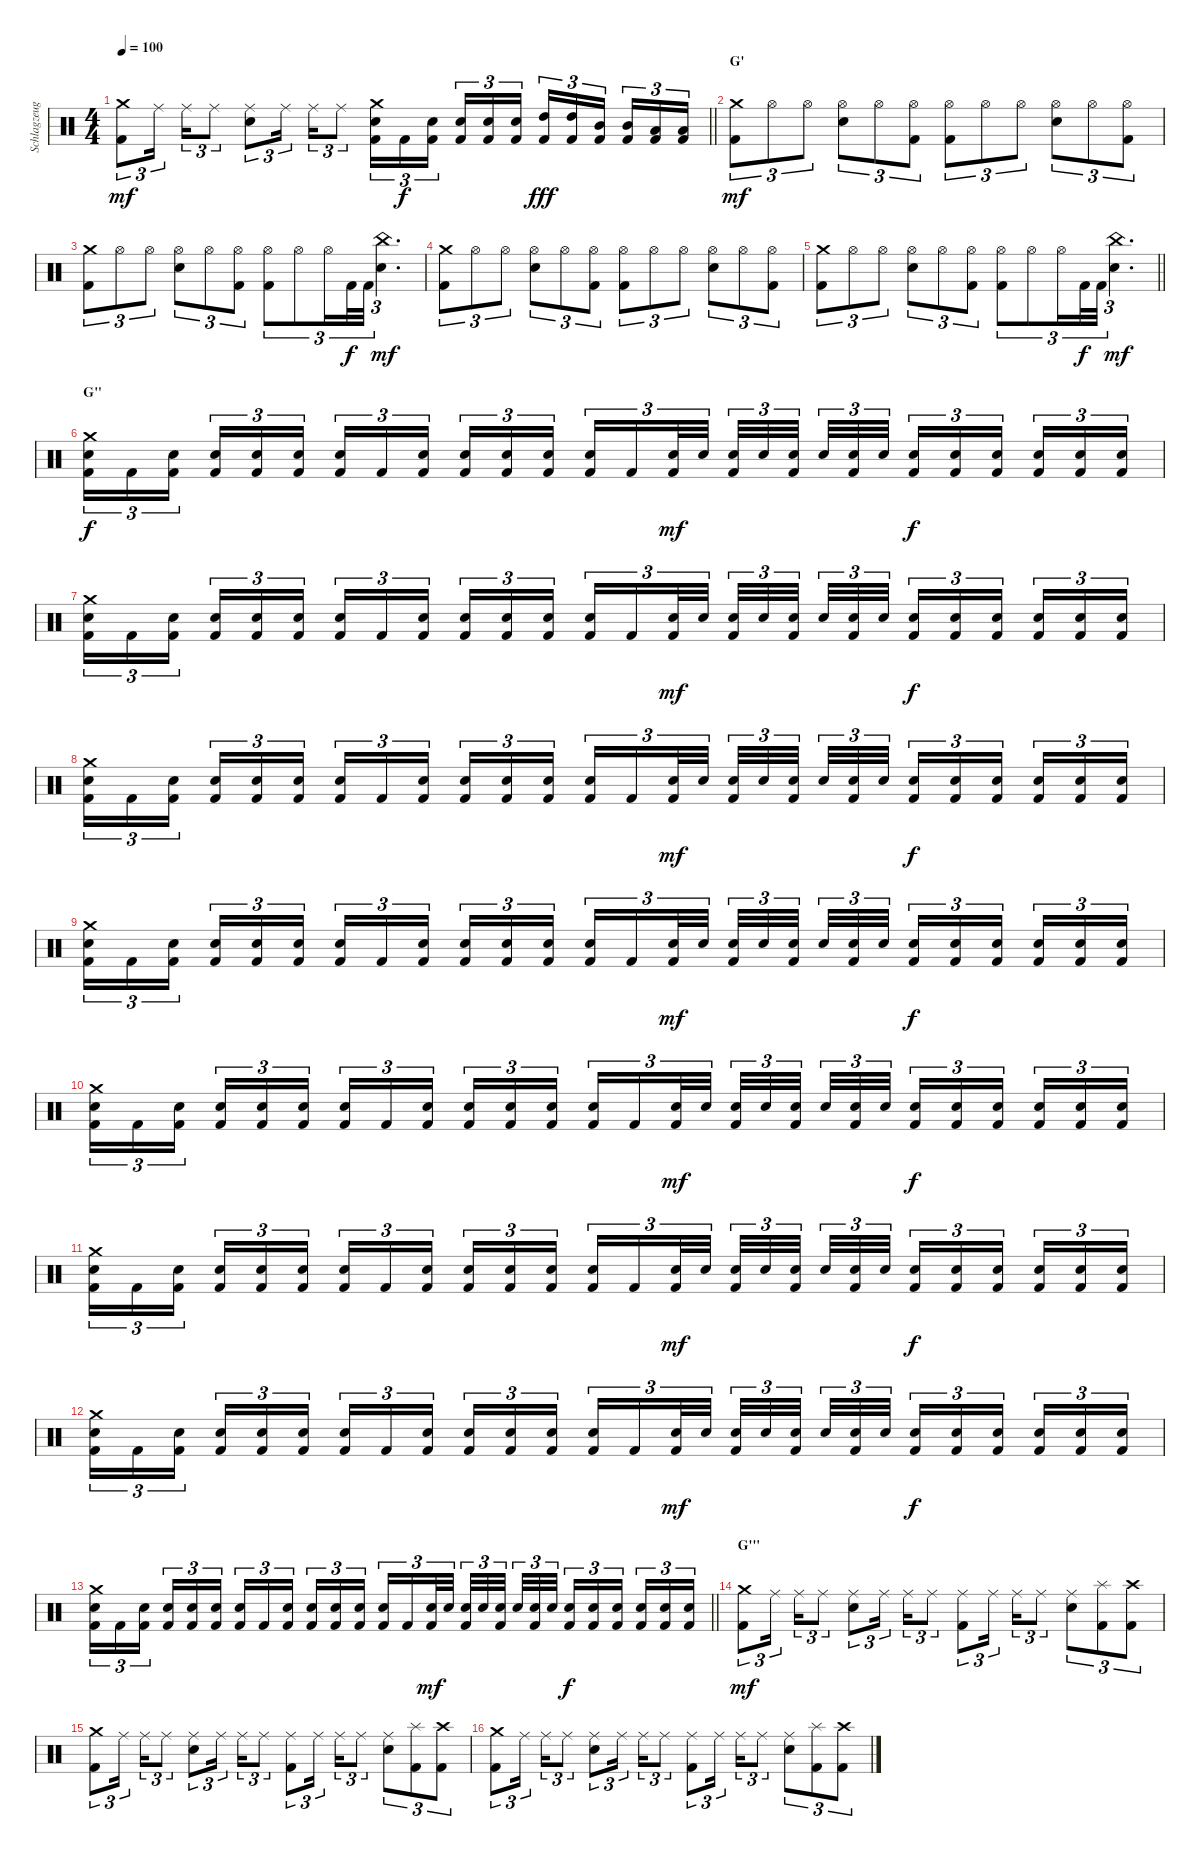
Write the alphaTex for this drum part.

\track ("Schlagzeug" "Schlagzeug") {instrument percussion}
\staff {score}
\articulation defaults
\ts (4 4)
\tempo 100
\clef neutral
\barLineRight lightlight
\ks c
("Crash medium (hit)" "Kick (hit) 2").8{tu (3 2) dy mf} "Ride (middle)".16{tu (3 2) beam splitsecondary} "Ride (middle)".16{tu (3 2)} "Ride (middle)".8{tu (3 2)} ("Ride (middle)" "Electric Snare (hit)").8{tu (3 2)} "Ride (middle)".16{tu (3 2) beam splitsecondary} "Ride (middle)".16{tu (3 2)} "Ride (middle)".8{tu (3 2)} ("Crash medium (hit)" "Electric Snare (hit)" "Kick (hit) 2").16{tu (3 2)} "Kick (hit) 2".16{tu (3 2) dy f} ("Electric Snare (hit)" "Kick (hit) 2").16{tu (3 2) beam splitsecondary} ("Electric Snare (hit)" "Kick (hit) 2").16{tu (3 2)} ("Electric Snare (hit)" "Kick (hit) 2").16{tu (3 2)} ("Electric Snare (hit)" "Kick (hit) 2").16{tu (3 2)} ("High Tom (hit)" "Kick (hit) 2").16{tu (3 2) dy fff} ("High Tom (hit)" "Kick (hit) 2").16{tu (3 2)} ("Mid Tom (hit)" "Kick (hit) 2").16{tu (3 2) beam splitsecondary} ("Mid Tom (hit)" "Kick (hit) 2").16{tu (3 2)} ("Low Tom (hit)" "Kick (hit) 2").16{tu (3 2)} ("Low Tom (hit)" "Kick (hit) 2").16{tu (3 2)} |
\section ("" "G'")
("Crash medium (hit)" "Kick (hit) 2").8{tu (3 2) dy mf} "Hi-Hat (open)".8{tu (3 2)} "Hi-Hat (open)".8{tu (3 2)} ("Hi-Hat (open)" "Electric Snare (hit)").8{tu (3 2)} "Hi-Hat (open)".8{tu (3 2)} ("Hi-Hat (open)" "Kick (hit) 2").8{tu (3 2)} ("Hi-Hat (open)" "Kick (hit) 2").8{tu (3 2)} "Hi-Hat (open)".8{tu (3 2)} "Hi-Hat (open)".8{tu (3 2)} ("Hi-Hat (open)" "Electric Snare (hit)").8{tu (3 2)} "Hi-Hat (open)".8{tu (3 2)} ("Hi-Hat (open)" "Kick (hit) 2").8{tu (3 2)} |
("Crash medium (hit)" "Kick (hit) 2").8{tu (3 2)} "Hi-Hat (open)".8{tu (3 2)} "Hi-Hat (open)".8{tu (3 2)} ("Hi-Hat (open)" "Electric Snare (hit)").8{tu (3 2)} "Hi-Hat (open)".8{tu (3 2)} ("Hi-Hat (open)" "Kick (hit) 2").8{tu (3 2)} ("Hi-Hat (open)" "Kick (hit) 2").8{tu (3 2)} "Hi-Hat (open)".8{tu (3 2)} "Hi-Hat (open)".16{tu (3 2)} "Kick (hit) 2".32{tu (3 2) dy f} "Kick (hit) 2".32{tu (3 2)} ("China (hit)" "Electric Snare (hit)").4{d tu (3 2) dy mf} |
("Crash medium (hit)" "Kick (hit) 2").8{tu (3 2)} "Hi-Hat (open)".8{tu (3 2)} "Hi-Hat (open)".8{tu (3 2)} ("Hi-Hat (open)" "Electric Snare (hit)").8{tu (3 2)} "Hi-Hat (open)".8{tu (3 2)} ("Hi-Hat (open)" "Kick (hit) 2").8{tu (3 2)} ("Hi-Hat (open)" "Kick (hit) 2").8{tu (3 2)} "Hi-Hat (open)".8{tu (3 2)} "Hi-Hat (open)".8{tu (3 2)} ("Hi-Hat (open)" "Electric Snare (hit)").8{tu (3 2)} "Hi-Hat (open)".8{tu (3 2)} ("Hi-Hat (open)" "Kick (hit) 2").8{tu (3 2)} |
\barLineRight lightlight
("Crash medium (hit)" "Kick (hit) 2").8{tu (3 2)} "Hi-Hat (open)".8{tu (3 2)} "Hi-Hat (open)".8{tu (3 2)} ("Hi-Hat (open)" "Electric Snare (hit)").8{tu (3 2)} "Hi-Hat (open)".8{tu (3 2)} ("Hi-Hat (open)" "Kick (hit) 2").8{tu (3 2)} ("Hi-Hat (open)" "Kick (hit) 2").8{tu (3 2)} "Hi-Hat (open)".8{tu (3 2)} "Hi-Hat (open)".16{tu (3 2)} "Kick (hit) 2".32{tu (3 2) dy f} "Kick (hit) 2".32{tu (3 2)} ("China (hit)" "Electric Snare (hit)").4{d tu (3 2) dy mf} |
\section ("" "G''")
("Crash medium (hit)" "Electric Snare (hit)" "Kick (hit) 2").16{tu (3 2) dy f} "Kick (hit) 2".16{tu (3 2)} ("Electric Snare (hit)" "Kick (hit) 2").16{tu (3 2) beam splitsecondary} ("Electric Snare (hit)" "Kick (hit) 2").16{tu (3 2)} ("Electric Snare (hit)" "Kick (hit) 2").16{tu (3 2)} ("Electric Snare (hit)" "Kick (hit) 2").16{tu (3 2)} ("Electric Snare (hit)" "Kick (hit) 2").16{tu (3 2)} "Kick (hit) 2".16{tu (3 2)} ("Electric Snare (hit)" "Kick (hit) 2").16{tu (3 2) beam splitsecondary} ("Electric Snare (hit)" "Kick (hit) 2").16{tu (3 2)} ("Electric Snare (hit)" "Kick (hit) 2").16{tu (3 2)} ("Electric Snare (hit)" "Kick (hit) 2").16{tu (3 2)} ("Electric Snare (hit)" "Kick (hit) 2").16{tu (3 2)} "Kick (hit) 2".16{tu (3 2)} ("Electric Snare (hit)" "Kick (hit) 2").32{tu (3 2) dy mf} "Electric Snare (hit)".32{tu (3 2) beam splitsecondary} ("Electric Snare (hit)" "Kick (hit) 2").32{tu (3 2)} "Electric Snare (hit)".32{tu (3 2)} ("Electric Snare (hit)" "Kick (hit) 2").32{tu (3 2) beam splitsecondary} "Electric Snare (hit)".32{tu (3 2)} ("Electric Snare (hit)" "Kick (hit) 2").32{tu (3 2)} "Electric Snare (hit)".32{tu (3 2)} ("Electric Snare (hit)" "Kick (hit) 2").16{tu (3 2) dy f} ("Electric Snare (hit)" "Kick (hit) 2").16{tu (3 2)} ("Electric Snare (hit)" "Kick (hit) 2").16{tu (3 2) beam splitsecondary} ("Electric Snare (hit)" "Kick (hit) 2").16{tu (3 2)} ("Electric Snare (hit)" "Kick (hit) 2").16{tu (3 2)} ("Electric Snare (hit)" "Kick (hit) 2").16{tu (3 2)} |
("Crash medium (hit)" "Electric Snare (hit)" "Kick (hit) 2").16{tu (3 2)} "Kick (hit) 2".16{tu (3 2)} ("Electric Snare (hit)" "Kick (hit) 2").16{tu (3 2) beam splitsecondary} ("Electric Snare (hit)" "Kick (hit) 2").16{tu (3 2)} ("Electric Snare (hit)" "Kick (hit) 2").16{tu (3 2)} ("Electric Snare (hit)" "Kick (hit) 2").16{tu (3 2)} ("Electric Snare (hit)" "Kick (hit) 2").16{tu (3 2)} "Kick (hit) 2".16{tu (3 2)} ("Electric Snare (hit)" "Kick (hit) 2").16{tu (3 2) beam splitsecondary} ("Electric Snare (hit)" "Kick (hit) 2").16{tu (3 2)} ("Electric Snare (hit)" "Kick (hit) 2").16{tu (3 2)} ("Electric Snare (hit)" "Kick (hit) 2").16{tu (3 2)} ("Electric Snare (hit)" "Kick (hit) 2").16{tu (3 2)} "Kick (hit) 2".16{tu (3 2)} ("Electric Snare (hit)" "Kick (hit) 2").32{tu (3 2) dy mf} "Electric Snare (hit)".32{tu (3 2) beam splitsecondary} ("Electric Snare (hit)" "Kick (hit) 2").32{tu (3 2)} "Electric Snare (hit)".32{tu (3 2)} ("Electric Snare (hit)" "Kick (hit) 2").32{tu (3 2) beam splitsecondary} "Electric Snare (hit)".32{tu (3 2)} ("Electric Snare (hit)" "Kick (hit) 2").32{tu (3 2)} "Electric Snare (hit)".32{tu (3 2)} ("Electric Snare (hit)" "Kick (hit) 2").16{tu (3 2) dy f} ("Electric Snare (hit)" "Kick (hit) 2").16{tu (3 2)} ("Electric Snare (hit)" "Kick (hit) 2").16{tu (3 2) beam splitsecondary} ("Electric Snare (hit)" "Kick (hit) 2").16{tu (3 2)} ("Electric Snare (hit)" "Kick (hit) 2").16{tu (3 2)} ("Electric Snare (hit)" "Kick (hit) 2").16{tu (3 2)} |
("Crash medium (hit)" "Electric Snare (hit)" "Kick (hit) 2").16{tu (3 2)} "Kick (hit) 2".16{tu (3 2)} ("Electric Snare (hit)" "Kick (hit) 2").16{tu (3 2) beam splitsecondary} ("Electric Snare (hit)" "Kick (hit) 2").16{tu (3 2)} ("Electric Snare (hit)" "Kick (hit) 2").16{tu (3 2)} ("Electric Snare (hit)" "Kick (hit) 2").16{tu (3 2)} ("Electric Snare (hit)" "Kick (hit) 2").16{tu (3 2)} "Kick (hit) 2".16{tu (3 2)} ("Electric Snare (hit)" "Kick (hit) 2").16{tu (3 2) beam splitsecondary} ("Electric Snare (hit)" "Kick (hit) 2").16{tu (3 2)} ("Electric Snare (hit)" "Kick (hit) 2").16{tu (3 2)} ("Electric Snare (hit)" "Kick (hit) 2").16{tu (3 2)} ("Electric Snare (hit)" "Kick (hit) 2").16{tu (3 2)} "Kick (hit) 2".16{tu (3 2)} ("Electric Snare (hit)" "Kick (hit) 2").32{tu (3 2) dy mf} "Electric Snare (hit)".32{tu (3 2) beam splitsecondary} ("Electric Snare (hit)" "Kick (hit) 2").32{tu (3 2)} "Electric Snare (hit)".32{tu (3 2)} ("Electric Snare (hit)" "Kick (hit) 2").32{tu (3 2) beam splitsecondary} "Electric Snare (hit)".32{tu (3 2)} ("Electric Snare (hit)" "Kick (hit) 2").32{tu (3 2)} "Electric Snare (hit)".32{tu (3 2)} ("Electric Snare (hit)" "Kick (hit) 2").16{tu (3 2) dy f} ("Electric Snare (hit)" "Kick (hit) 2").16{tu (3 2)} ("Electric Snare (hit)" "Kick (hit) 2").16{tu (3 2) beam splitsecondary} ("Electric Snare (hit)" "Kick (hit) 2").16{tu (3 2)} ("Electric Snare (hit)" "Kick (hit) 2").16{tu (3 2)} ("Electric Snare (hit)" "Kick (hit) 2").16{tu (3 2)} |
("Crash medium (hit)" "Electric Snare (hit)" "Kick (hit) 2").16{tu (3 2)} "Kick (hit) 2".16{tu (3 2)} ("Electric Snare (hit)" "Kick (hit) 2").16{tu (3 2) beam splitsecondary} ("Electric Snare (hit)" "Kick (hit) 2").16{tu (3 2)} ("Electric Snare (hit)" "Kick (hit) 2").16{tu (3 2)} ("Electric Snare (hit)" "Kick (hit) 2").16{tu (3 2)} ("Electric Snare (hit)" "Kick (hit) 2").16{tu (3 2)} "Kick (hit) 2".16{tu (3 2)} ("Electric Snare (hit)" "Kick (hit) 2").16{tu (3 2) beam splitsecondary} ("Electric Snare (hit)" "Kick (hit) 2").16{tu (3 2)} ("Electric Snare (hit)" "Kick (hit) 2").16{tu (3 2)} ("Electric Snare (hit)" "Kick (hit) 2").16{tu (3 2)} ("Electric Snare (hit)" "Kick (hit) 2").16{tu (3 2)} "Kick (hit) 2".16{tu (3 2)} ("Electric Snare (hit)" "Kick (hit) 2").32{tu (3 2) dy mf} "Electric Snare (hit)".32{tu (3 2) beam splitsecondary} ("Electric Snare (hit)" "Kick (hit) 2").32{tu (3 2)} "Electric Snare (hit)".32{tu (3 2)} ("Electric Snare (hit)" "Kick (hit) 2").32{tu (3 2) beam splitsecondary} "Electric Snare (hit)".32{tu (3 2)} ("Electric Snare (hit)" "Kick (hit) 2").32{tu (3 2)} "Electric Snare (hit)".32{tu (3 2)} ("Electric Snare (hit)" "Kick (hit) 2").16{tu (3 2) dy f} ("Electric Snare (hit)" "Kick (hit) 2").16{tu (3 2)} ("Electric Snare (hit)" "Kick (hit) 2").16{tu (3 2) beam splitsecondary} ("Electric Snare (hit)" "Kick (hit) 2").16{tu (3 2)} ("Electric Snare (hit)" "Kick (hit) 2").16{tu (3 2)} ("Electric Snare (hit)" "Kick (hit) 2").16{tu (3 2)} |
("Crash medium (hit)" "Electric Snare (hit)" "Kick (hit) 2").16{tu (3 2)} "Kick (hit) 2".16{tu (3 2)} ("Electric Snare (hit)" "Kick (hit) 2").16{tu (3 2) beam splitsecondary} ("Electric Snare (hit)" "Kick (hit) 2").16{tu (3 2)} ("Electric Snare (hit)" "Kick (hit) 2").16{tu (3 2)} ("Electric Snare (hit)" "Kick (hit) 2").16{tu (3 2)} ("Electric Snare (hit)" "Kick (hit) 2").16{tu (3 2)} "Kick (hit) 2".16{tu (3 2)} ("Electric Snare (hit)" "Kick (hit) 2").16{tu (3 2) beam splitsecondary} ("Electric Snare (hit)" "Kick (hit) 2").16{tu (3 2)} ("Electric Snare (hit)" "Kick (hit) 2").16{tu (3 2)} ("Electric Snare (hit)" "Kick (hit) 2").16{tu (3 2)} ("Electric Snare (hit)" "Kick (hit) 2").16{tu (3 2)} "Kick (hit) 2".16{tu (3 2)} ("Electric Snare (hit)" "Kick (hit) 2").32{tu (3 2) dy mf} "Electric Snare (hit)".32{tu (3 2) beam splitsecondary} ("Electric Snare (hit)" "Kick (hit) 2").32{tu (3 2)} "Electric Snare (hit)".32{tu (3 2)} ("Electric Snare (hit)" "Kick (hit) 2").32{tu (3 2) beam splitsecondary} "Electric Snare (hit)".32{tu (3 2)} ("Electric Snare (hit)" "Kick (hit) 2").32{tu (3 2)} "Electric Snare (hit)".32{tu (3 2)} ("Electric Snare (hit)" "Kick (hit) 2").16{tu (3 2) dy f} ("Electric Snare (hit)" "Kick (hit) 2").16{tu (3 2)} ("Electric Snare (hit)" "Kick (hit) 2").16{tu (3 2) beam splitsecondary} ("Electric Snare (hit)" "Kick (hit) 2").16{tu (3 2)} ("Electric Snare (hit)" "Kick (hit) 2").16{tu (3 2)} ("Electric Snare (hit)" "Kick (hit) 2").16{tu (3 2)} |
("Crash medium (hit)" "Electric Snare (hit)" "Kick (hit) 2").16{tu (3 2)} "Kick (hit) 2".16{tu (3 2)} ("Electric Snare (hit)" "Kick (hit) 2").16{tu (3 2) beam splitsecondary} ("Electric Snare (hit)" "Kick (hit) 2").16{tu (3 2)} ("Electric Snare (hit)" "Kick (hit) 2").16{tu (3 2)} ("Electric Snare (hit)" "Kick (hit) 2").16{tu (3 2)} ("Electric Snare (hit)" "Kick (hit) 2").16{tu (3 2)} "Kick (hit) 2".16{tu (3 2)} ("Electric Snare (hit)" "Kick (hit) 2").16{tu (3 2) beam splitsecondary} ("Electric Snare (hit)" "Kick (hit) 2").16{tu (3 2)} ("Electric Snare (hit)" "Kick (hit) 2").16{tu (3 2)} ("Electric Snare (hit)" "Kick (hit) 2").16{tu (3 2)} ("Electric Snare (hit)" "Kick (hit) 2").16{tu (3 2)} "Kick (hit) 2".16{tu (3 2)} ("Electric Snare (hit)" "Kick (hit) 2").32{tu (3 2) dy mf} "Electric Snare (hit)".32{tu (3 2) beam splitsecondary} ("Electric Snare (hit)" "Kick (hit) 2").32{tu (3 2)} "Electric Snare (hit)".32{tu (3 2)} ("Electric Snare (hit)" "Kick (hit) 2").32{tu (3 2) beam splitsecondary} "Electric Snare (hit)".32{tu (3 2)} ("Electric Snare (hit)" "Kick (hit) 2").32{tu (3 2)} "Electric Snare (hit)".32{tu (3 2)} ("Electric Snare (hit)" "Kick (hit) 2").16{tu (3 2) dy f} ("Electric Snare (hit)" "Kick (hit) 2").16{tu (3 2)} ("Electric Snare (hit)" "Kick (hit) 2").16{tu (3 2) beam splitsecondary} ("Electric Snare (hit)" "Kick (hit) 2").16{tu (3 2)} ("Electric Snare (hit)" "Kick (hit) 2").16{tu (3 2)} ("Electric Snare (hit)" "Kick (hit) 2").16{tu (3 2)} |
("Crash medium (hit)" "Electric Snare (hit)" "Kick (hit) 2").16{tu (3 2)} "Kick (hit) 2".16{tu (3 2)} ("Electric Snare (hit)" "Kick (hit) 2").16{tu (3 2) beam splitsecondary} ("Electric Snare (hit)" "Kick (hit) 2").16{tu (3 2)} ("Electric Snare (hit)" "Kick (hit) 2").16{tu (3 2)} ("Electric Snare (hit)" "Kick (hit) 2").16{tu (3 2)} ("Electric Snare (hit)" "Kick (hit) 2").16{tu (3 2)} "Kick (hit) 2".16{tu (3 2)} ("Electric Snare (hit)" "Kick (hit) 2").16{tu (3 2) beam splitsecondary} ("Electric Snare (hit)" "Kick (hit) 2").16{tu (3 2)} ("Electric Snare (hit)" "Kick (hit) 2").16{tu (3 2)} ("Electric Snare (hit)" "Kick (hit) 2").16{tu (3 2)} ("Electric Snare (hit)" "Kick (hit) 2").16{tu (3 2)} "Kick (hit) 2".16{tu (3 2)} ("Electric Snare (hit)" "Kick (hit) 2").32{tu (3 2) dy mf} "Electric Snare (hit)".32{tu (3 2) beam splitsecondary} ("Electric Snare (hit)" "Kick (hit) 2").32{tu (3 2)} "Electric Snare (hit)".32{tu (3 2)} ("Electric Snare (hit)" "Kick (hit) 2").32{tu (3 2) beam splitsecondary} "Electric Snare (hit)".32{tu (3 2)} ("Electric Snare (hit)" "Kick (hit) 2").32{tu (3 2)} "Electric Snare (hit)".32{tu (3 2)} ("Electric Snare (hit)" "Kick (hit) 2").16{tu (3 2) dy f} ("Electric Snare (hit)" "Kick (hit) 2").16{tu (3 2)} ("Electric Snare (hit)" "Kick (hit) 2").16{tu (3 2) beam splitsecondary} ("Electric Snare (hit)" "Kick (hit) 2").16{tu (3 2)} ("Electric Snare (hit)" "Kick (hit) 2").16{tu (3 2)} ("Electric Snare (hit)" "Kick (hit) 2").16{tu (3 2)} |
\barLineRight lightlight
("Crash medium (hit)" "Electric Snare (hit)" "Kick (hit) 2").16{tu (3 2)} "Kick (hit) 2".16{tu (3 2)} ("Electric Snare (hit)" "Kick (hit) 2").16{tu (3 2) beam splitsecondary} ("Electric Snare (hit)" "Kick (hit) 2").16{tu (3 2)} ("Electric Snare (hit)" "Kick (hit) 2").16{tu (3 2)} ("Electric Snare (hit)" "Kick (hit) 2").16{tu (3 2)} ("Electric Snare (hit)" "Kick (hit) 2").16{tu (3 2)} "Kick (hit) 2".16{tu (3 2)} ("Electric Snare (hit)" "Kick (hit) 2").16{tu (3 2) beam splitsecondary} ("Electric Snare (hit)" "Kick (hit) 2").16{tu (3 2)} ("Electric Snare (hit)" "Kick (hit) 2").16{tu (3 2)} ("Electric Snare (hit)" "Kick (hit) 2").16{tu (3 2)} ("Electric Snare (hit)" "Kick (hit) 2").16{tu (3 2)} "Kick (hit) 2".16{tu (3 2)} ("Electric Snare (hit)" "Kick (hit) 2").32{tu (3 2) dy mf} "Electric Snare (hit)".32{tu (3 2) beam splitsecondary} ("Electric Snare (hit)" "Kick (hit) 2").32{tu (3 2)} "Electric Snare (hit)".32{tu (3 2)} ("Electric Snare (hit)" "Kick (hit) 2").32{tu (3 2) beam splitsecondary} "Electric Snare (hit)".32{tu (3 2)} ("Electric Snare (hit)" "Kick (hit) 2").32{tu (3 2)} "Electric Snare (hit)".32{tu (3 2)} ("Electric Snare (hit)" "Kick (hit) 2").16{tu (3 2) dy f} ("Electric Snare (hit)" "Kick (hit) 2").16{tu (3 2)} ("Electric Snare (hit)" "Kick (hit) 2").16{tu (3 2) beam splitsecondary} ("Electric Snare (hit)" "Kick (hit) 2").16{tu (3 2)} ("Electric Snare (hit)" "Kick (hit) 2").16{tu (3 2)} ("Electric Snare (hit)" "Kick (hit) 2").16{tu (3 2)} |
\section ("" "G'''")
("Crash medium (hit)" "Kick (hit) 2").8{tu (3 2) dy mf} "Ride (middle)".16{tu (3 2) beam splitsecondary} "Ride (middle)".16{tu (3 2)} "Ride (middle)".8{tu (3 2)} ("Ride (middle)" "Electric Snare (hit)").8{tu (3 2)} "Ride (middle)".16{tu (3 2) beam splitsecondary} "Ride (middle)".16{tu (3 2)} "Ride (middle)".8{tu (3 2)} ("Ride (middle)" "Kick (hit) 2").8{tu (3 2)} "Ride (middle)".16{tu (3 2) beam splitsecondary} "Ride (middle)".16{tu (3 2)} "Ride (middle)".8{tu (3 2)} ("Ride (middle)" "Electric Snare (hit)").8{tu (3 2)} ("Splash (hit)" "Kick (hit) 2").8{tu (3 2)} ("Crash high (hit)" "Kick (hit) 2").8{tu (3 2)} |
("Crash medium (hit)" "Kick (hit) 2").8{tu (3 2)} "Ride (middle)".16{tu (3 2) beam splitsecondary} "Ride (middle)".16{tu (3 2)} "Ride (middle)".8{tu (3 2)} ("Ride (middle)" "Electric Snare (hit)").8{tu (3 2)} "Ride (middle)".16{tu (3 2) beam splitsecondary} "Ride (middle)".16{tu (3 2)} "Ride (middle)".8{tu (3 2)} ("Ride (middle)" "Kick (hit) 2").8{tu (3 2)} "Ride (middle)".16{tu (3 2) beam splitsecondary} "Ride (middle)".16{tu (3 2)} "Ride (middle)".8{tu (3 2)} ("Ride (middle)" "Electric Snare (hit)").8{tu (3 2)} ("Splash (hit)" "Kick (hit) 2").8{tu (3 2)} ("Crash high (hit)" "Kick (hit) 2").8{tu (3 2)} |
("Crash medium (hit)" "Kick (hit) 2").8{tu (3 2)} "Ride (middle)".16{tu (3 2) beam splitsecondary} "Ride (middle)".16{tu (3 2)} "Ride (middle)".8{tu (3 2)} ("Ride (middle)" "Electric Snare (hit)").8{tu (3 2)} "Ride (middle)".16{tu (3 2) beam splitsecondary} "Ride (middle)".16{tu (3 2)} "Ride (middle)".8{tu (3 2)} ("Ride (middle)" "Kick (hit) 2").8{tu (3 2)} "Ride (middle)".16{tu (3 2) beam splitsecondary} "Ride (middle)".16{tu (3 2)} "Ride (middle)".8{tu (3 2)} ("Ride (middle)" "Electric Snare (hit)").8{tu (3 2)} ("Splash (hit)" "Kick (hit) 2").8{tu (3 2)} ("Crash high (hit)" "Kick (hit) 2").8{tu (3 2)}
